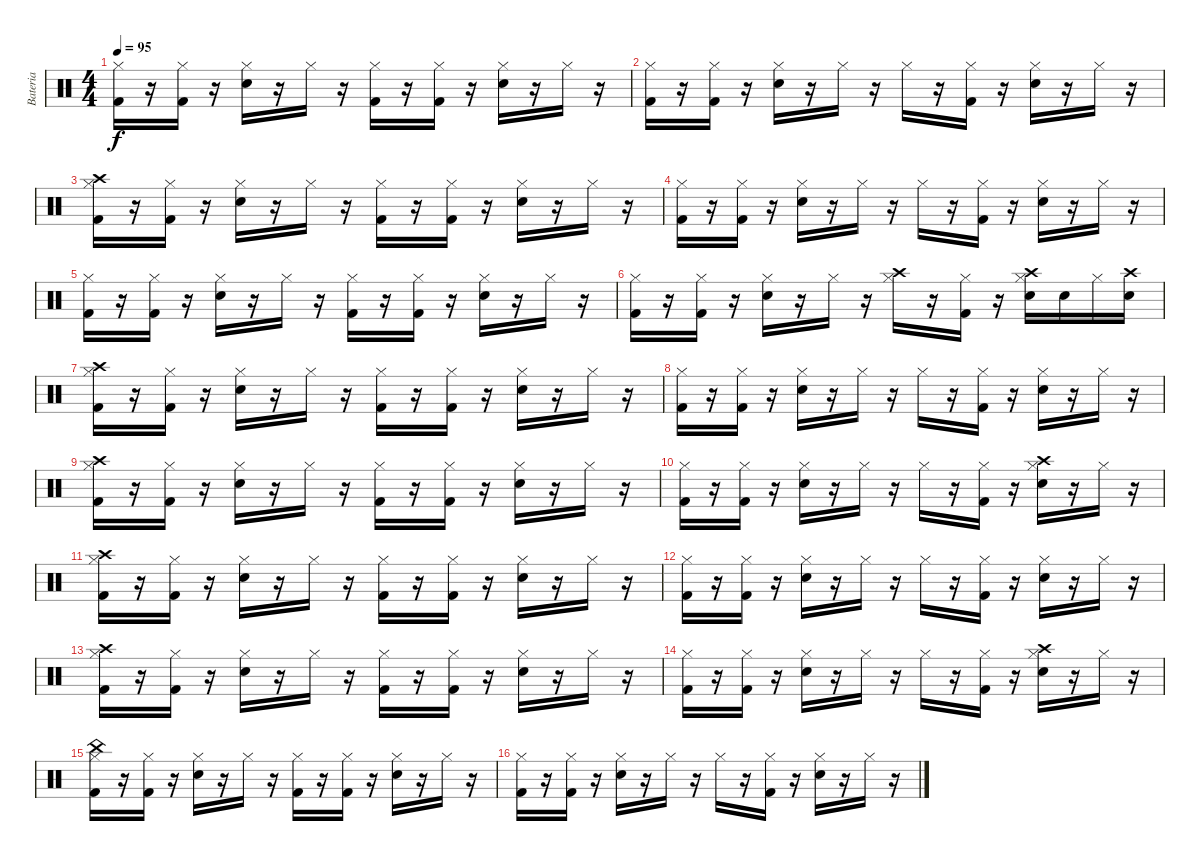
\track ("Bateria" "Bateria") {instrument percussion}
\staff {score}
\articulation defaults
\ts (4 4)
\tempo 95
\clef neutral
\ks c
("Hi-Hat (closed)" "Kick (hit) 2").16{dy f} r.16 ("Hi-Hat (closed)" "Kick (hit) 2").16 r.16 ("Hi-Hat (closed)" "Snare (hit) 2").16 r.16 "Hi-Hat (closed)".16 r.16 ("Hi-Hat (closed)" "Kick (hit) 2").16 r.16 ("Hi-Hat (closed)" "Kick (hit) 2").16 r.16 ("Hi-Hat (closed)" "Snare (hit) 2").16 r.16 "Hi-Hat (closed)".16 r.16 |
("Hi-Hat (closed)" "Kick (hit) 2").16 r.16 ("Hi-Hat (closed)" "Kick (hit) 2").16 r.16 ("Hi-Hat (closed)" "Snare (hit) 2").16 r.16 "Hi-Hat (closed)".16 r.16 "Hi-Hat (closed)".16 r.16 ("Hi-Hat (closed)" "Kick (hit) 2").16 r.16 ("Hi-Hat (closed)" "Snare (hit) 2").16 r.16 "Hi-Hat (closed)".16 r.16 |
("Crash high (hit)" "Hi-Hat (closed)" "Kick (hit) 2").16 r.16 ("Hi-Hat (closed)" "Kick (hit) 2").16 r.16 ("Hi-Hat (closed)" "Snare (hit) 2").16 r.16 "Hi-Hat (closed)".16 r.16 ("Hi-Hat (closed)" "Kick (hit) 2").16 r.16 ("Hi-Hat (closed)" "Kick (hit) 2").16 r.16 ("Hi-Hat (closed)" "Snare (hit) 2").16 r.16 "Hi-Hat (closed)".16 r.16 |
("Hi-Hat (closed)" "Kick (hit) 2").16 r.16 ("Hi-Hat (closed)" "Kick (hit) 2").16 r.16 ("Hi-Hat (closed)" "Snare (hit) 2").16 r.16 "Hi-Hat (closed)".16 r.16 "Hi-Hat (closed)".16 r.16 ("Hi-Hat (closed)" "Kick (hit) 2").16 r.16 ("Hi-Hat (closed)" "Snare (hit) 2").16 r.16 "Hi-Hat (closed)".16 r.16 |
("Hi-Hat (closed)" "Kick (hit) 2").16 r.16 ("Hi-Hat (closed)" "Kick (hit) 2").16 r.16 ("Hi-Hat (closed)" "Snare (hit) 2").16 r.16 "Hi-Hat (closed)".16 r.16 ("Hi-Hat (closed)" "Kick (hit) 2").16 r.16 ("Hi-Hat (closed)" "Kick (hit) 2").16 r.16 ("Hi-Hat (closed)" "Snare (hit) 2").16 r.16 "Hi-Hat (closed)".16 r.16 |
("Hi-Hat (closed)" "Kick (hit) 2").16 r.16 ("Hi-Hat (closed)" "Kick (hit) 2").16 r.16 ("Hi-Hat (closed)" "Snare (hit) 2").16 r.16 "Hi-Hat (closed)".16 r.16 ("Crash high (hit)" "Hi-Hat (closed)").16 r.16 ("Hi-Hat (closed)" "Kick (hit) 2").16 r.16 ("Crash high (hit)" "Hi-Hat (closed)" "Snare (hit) 2").16 "Snare (hit) 2".16 "Hi-Hat (closed)".16 ("Crash high (hit)" "Snare (hit) 2").16 |
("Crash high (hit)" "Hi-Hat (closed)" "Kick (hit) 2").16 r.16 ("Hi-Hat (closed)" "Kick (hit) 2").16 r.16 ("Hi-Hat (closed)" "Snare (hit) 2").16 r.16 "Hi-Hat (closed)".16 r.16 ("Hi-Hat (closed)" "Kick (hit) 2").16 r.16 ("Hi-Hat (closed)" "Kick (hit) 2").16 r.16 ("Hi-Hat (closed)" "Snare (hit) 2").16 r.16 "Hi-Hat (closed)".16 r.16 |
("Hi-Hat (closed)" "Kick (hit) 2").16 r.16 ("Hi-Hat (closed)" "Kick (hit) 2").16 r.16 ("Hi-Hat (closed)" "Snare (hit) 2").16 r.16 "Hi-Hat (closed)".16 r.16 "Hi-Hat (closed)".16 r.16 ("Hi-Hat (closed)" "Kick (hit) 2").16 r.16 ("Hi-Hat (closed)" "Snare (hit) 2").16 r.16 "Hi-Hat (closed)".16 r.16 |
("Crash high (hit)" "Hi-Hat (closed)" "Kick (hit) 2").16 r.16 ("Hi-Hat (closed)" "Kick (hit) 2").16 r.16 ("Hi-Hat (closed)" "Snare (hit) 2").16 r.16 "Hi-Hat (closed)".16 r.16 ("Hi-Hat (closed)" "Kick (hit) 2").16 r.16 ("Hi-Hat (closed)" "Kick (hit) 2").16 r.16 ("Hi-Hat (closed)" "Snare (hit) 2").16 r.16 "Hi-Hat (closed)".16 r.16 |
("Hi-Hat (closed)" "Kick (hit) 2").16 r.16 ("Hi-Hat (closed)" "Kick (hit) 2").16 r.16 ("Hi-Hat (closed)" "Snare (hit) 2").16 r.16 "Hi-Hat (closed)".16 r.16 "Hi-Hat (closed)".16 r.16 ("Hi-Hat (closed)" "Kick (hit) 2").16 r.16 ("Crash high (hit)" "Hi-Hat (closed)" "Snare (hit) 2").16 r.16 "Hi-Hat (closed)".16 r.16 |
("Crash high (hit)" "Hi-Hat (closed)" "Kick (hit) 2").16 r.16 ("Hi-Hat (closed)" "Kick (hit) 2").16 r.16 ("Hi-Hat (closed)" "Snare (hit) 2").16 r.16 "Hi-Hat (closed)".16 r.16 ("Hi-Hat (closed)" "Kick (hit) 2").16 r.16 ("Hi-Hat (closed)" "Kick (hit) 2").16 r.16 ("Hi-Hat (closed)" "Snare (hit) 2").16 r.16 "Hi-Hat (closed)".16 r.16 |
("Hi-Hat (closed)" "Kick (hit) 2").16 r.16 ("Hi-Hat (closed)" "Kick (hit) 2").16 r.16 ("Hi-Hat (closed)" "Snare (hit) 2").16 r.16 "Hi-Hat (closed)".16 r.16 "Hi-Hat (closed)".16 r.16 ("Hi-Hat (closed)" "Kick (hit) 2").16 r.16 ("Hi-Hat (closed)" "Snare (hit) 2").16 r.16 "Hi-Hat (closed)".16 r.16 |
("Crash high (hit)" "Hi-Hat (closed)" "Kick (hit) 2").16 r.16 ("Hi-Hat (closed)" "Kick (hit) 2").16 r.16 ("Hi-Hat (closed)" "Snare (hit) 2").16 r.16 "Hi-Hat (closed)".16 r.16 ("Hi-Hat (closed)" "Kick (hit) 2").16 r.16 ("Hi-Hat (closed)" "Kick (hit) 2").16 r.16 ("Hi-Hat (closed)" "Snare (hit) 2").16 r.16 "Hi-Hat (closed)".16 r.16 |
("Hi-Hat (closed)" "Kick (hit) 2").16 r.16 ("Hi-Hat (closed)" "Kick (hit) 2").16 r.16 ("Hi-Hat (closed)" "Snare (hit) 2").16 r.16 "Hi-Hat (closed)".16 r.16 "Hi-Hat (closed)".16 r.16 ("Hi-Hat (closed)" "Kick (hit) 2").16 r.16 ("Crash high (hit)" "Hi-Hat (closed)" "Snare (hit) 2").16 r.16 "Hi-Hat (closed)".16 r.16 |
("China (hit)" "Hi-Hat (closed)" "Kick (hit) 2").16 r.16 ("Hi-Hat (closed)" "Kick (hit) 2").16 r.16 ("Hi-Hat (closed)" "Snare (hit) 2").16 r.16 "Hi-Hat (closed)".16 r.16 ("Hi-Hat (closed)" "Kick (hit) 2").16 r.16 ("Hi-Hat (closed)" "Kick (hit) 2").16 r.16 ("Hi-Hat (closed)" "Snare (hit) 2").16 r.16 "Hi-Hat (closed)".16 r.16 |
("Hi-Hat (closed)" "Kick (hit) 2").16 r.16 ("Hi-Hat (closed)" "Kick (hit) 2").16 r.16 ("Hi-Hat (closed)" "Snare (hit) 2").16 r.16 "Hi-Hat (closed)".16 r.16 "Hi-Hat (closed)".16 r.16 ("Hi-Hat (closed)" "Kick (hit) 2").16 r.16 ("Hi-Hat (closed)" "Snare (hit) 2").16 r.16 "Hi-Hat (closed)".16 r.16
